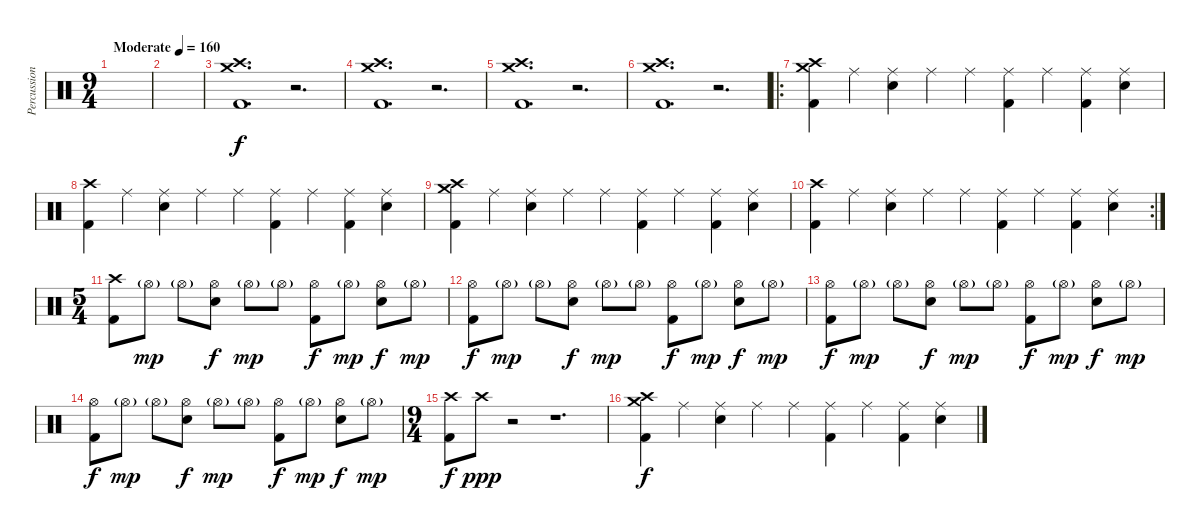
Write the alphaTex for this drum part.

\track ("Percussion" "Percussion") {instrument percussion}
\staff {score}
\articulation defaults
\ts (9 4)
\tempo (160 "Moderate")
\clef neutral
\ks c
|
|
("Crash medium (hit)" "Crash high (hit)" "Kick (hit) 2").1{d} r.2{d} |
("Crash medium (hit)" "Crash high (hit)" "Kick (hit) 2").1{d} r.2{d} |
("Crash medium (hit)" "Crash high (hit)" "Kick (hit) 2").1{d} r.2{d} |
("Crash medium (hit)" "Crash high (hit)" "Kick (hit) 2").1{d} r.2{d} |
\ro
("Crash medium (hit)" "Crash high (hit)" "Kick (hit) 2").4 "Ride (middle)".4 ("Ride (middle)" "Snare (hit) 2").4 "Ride (middle)".4 "Ride (middle)".4 ("Ride (middle)" "Kick (hit) 2").4 "Ride (middle)".4 ("Ride (middle)" "Kick (hit) 2").4 ("Ride (middle)" "Snare (hit) 2").4 |
("Crash high (hit)" "Kick (hit) 2").4 "Ride (middle)".4 ("Ride (middle)" "Snare (hit) 2").4 "Ride (middle)".4 "Ride (middle)".4 ("Ride (middle)" "Kick (hit) 2").4 "Ride (middle)".4 ("Ride (middle)" "Kick (hit) 2").4 ("Ride (middle)" "Snare (hit) 2").4 |
("Crash medium (hit)" "Crash high (hit)" "Kick (hit) 2").4 "Ride (middle)".4 ("Ride (middle)" "Snare (hit) 2").4 "Ride (middle)".4 "Ride (middle)".4 ("Ride (middle)" "Kick (hit) 2").4 "Ride (middle)".4 ("Ride (middle)" "Kick (hit) 2").4 ("Ride (middle)" "Snare (hit) 2").4 |
\rc 2
("Crash high (hit)" "Kick (hit) 2").4 "Ride (middle)".4 ("Ride (middle)" "Snare (hit) 2").4 "Ride (middle)".4 "Ride (middle)".4 ("Ride (middle)" "Kick (hit) 2").4 "Ride (middle)".4 ("Ride (middle)" "Kick (hit) 2").4 ("Ride (middle)" "Snare (hit) 2").4 |
\ts (5 4)
("Crash high (hit)" "Kick (hit) 2").8 "Hi-Hat (open)"{g}.8{dy mp} "Hi-Hat (open)"{g}.8 ("Hi-Hat (open)" "Snare (hit) 2").8{dy f} "Hi-Hat (open)"{g}.8{dy mp} "Hi-Hat (open)"{g}.8 ("Hi-Hat (open)" "Kick (hit) 2").8{dy f} "Hi-Hat (open)"{g}.8{dy mp} ("Hi-Hat (open)" "Snare (hit) 2").8{dy f} "Hi-Hat (open)"{g}.8{dy mp} |
("Hi-Hat (open)" "Kick (hit) 2").8{dy f} "Hi-Hat (open)"{g}.8{dy mp} "Hi-Hat (open)"{g}.8 ("Hi-Hat (open)" "Snare (hit) 2").8{dy f} "Hi-Hat (open)"{g}.8{dy mp} "Hi-Hat (open)"{g}.8 ("Hi-Hat (open)" "Kick (hit) 2").8{dy f} "Hi-Hat (open)"{g}.8{dy mp} ("Hi-Hat (open)" "Snare (hit) 2").8{dy f} "Hi-Hat (open)"{g}.8{dy mp} |
("Hi-Hat (open)" "Kick (hit) 2").8{dy f} "Hi-Hat (open)"{g}.8{dy mp} "Hi-Hat (open)"{g}.8 ("Hi-Hat (open)" "Snare (hit) 2").8{dy f} "Hi-Hat (open)"{g}.8{dy mp} "Hi-Hat (open)"{g}.8 ("Hi-Hat (open)" "Kick (hit) 2").8{dy f} "Hi-Hat (open)"{g}.8{dy mp} ("Hi-Hat (open)" "Snare (hit) 2").8{dy f} "Hi-Hat (open)"{g}.8{dy mp} |
("Hi-Hat (open)" "Kick (hit) 2").8{dy f} "Hi-Hat (open)"{g}.8{dy mp} "Hi-Hat (open)"{g}.8 ("Hi-Hat (open)" "Snare (hit) 2").8{dy f} "Hi-Hat (open)"{g}.8{dy mp} "Hi-Hat (open)"{g}.8 ("Hi-Hat (open)" "Kick (hit) 2").8{dy f} "Hi-Hat (open)"{g}.8{dy mp} ("Hi-Hat (open)" "Snare (hit) 2").8{dy f} "Hi-Hat (open)"{g}.8{dy mp} |
\ts (9 4)
("Crash high (hit)" "Kick (hit) 2").8{dy f} "Crash high (hit)".8{dy ppp} r.2 r.1{d} |
("Crash medium (hit)" "Crash high (hit)" "Kick (hit) 2").4{dy f} "Ride (middle)".4 ("Ride (middle)" "Snare (hit) 2").4 "Ride (middle)".4 "Ride (middle)".4 ("Ride (middle)" "Kick (hit) 2").4 "Ride (middle)".4 ("Ride (middle)" "Kick (hit) 2").4 ("Ride (middle)" "Snare (hit) 2").4
